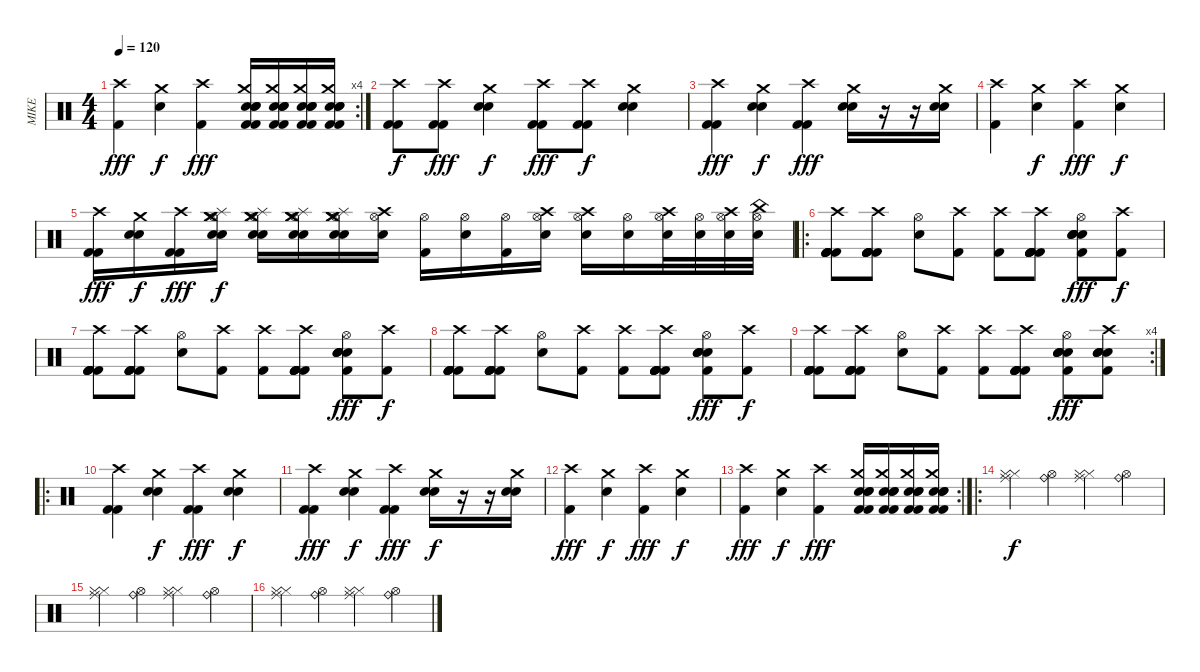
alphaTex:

\track ("MIKE" "MIKE") {instrument percussion}
\staff {score}
\articulation defaults
\rc 4
\ts (4 4)
\tempo 120
\clef neutral
\ks c
("Crash high (hit)" "Kick (hit) 2").4{dy fff} ("Crash medium (hit)" "Snare (hit) 2").4{dy f} ("Crash high (hit)" "Kick (hit) 2").4{dy fff} ("Crash medium (hit)" "Kick (hit) 2" "Kick (hit) 2" "Snare (hit) 2" "Snare (hit) 2" "Snare (hit) 2").16 ("Crash medium (hit)" "Kick (hit) 2" "Kick (hit) 2" "Snare (hit) 2" "Snare (hit) 2" "Snare (hit) 2").16 ("Crash medium (hit)" "Kick (hit) 2" "Kick (hit) 2" "Snare (hit) 2" "Snare (hit) 2" "Snare (hit) 2").16 ("Crash medium (hit)" "Kick (hit) 2" "Kick (hit) 2" "Snare (hit) 2" "Snare (hit) 2" "Snare (hit) 2").16 |
("Crash high (hit)" "Kick (hit) 2" "Kick (hit) 2").8{dy f} ("Crash high (hit)" "Kick (hit) 2" "Kick (hit) 2").8{dy fff} ("Crash medium (hit)" "Snare (hit) 2" "Snare (hit) 2").4{dy f} ("Crash high (hit)" "Kick (hit) 2" "Kick (hit) 2").8{dy fff} ("Crash high (hit)" "Kick (hit) 2" "Kick (hit) 2").8{dy f} ("Crash medium (hit)" "Snare (hit) 2" "Snare (hit) 2").4 |
("Crash high (hit)" "Kick (hit) 2" "Kick (hit) 2").4{dy fff} ("Crash medium (hit)" "Snare (hit) 2" "Snare (hit) 2").4{dy f} ("Crash high (hit)" "Kick (hit) 2" "Kick (hit) 2").4{dy fff} ("Crash medium (hit)" "Snare (hit) 2" "Snare (hit) 2").16 r.16 r.16 ("Crash medium (hit)" "Snare (hit) 2" "Snare (hit) 2").16 |
("Crash high (hit)" "Kick (hit) 2").4 ("Crash medium (hit)" "Snare (hit) 2").4{dy f} ("Crash high (hit)" "Kick (hit) 2").4{dy fff} ("Crash medium (hit)" "Snare (hit) 2").4{dy f} |
("Crash high (hit)" "Kick (hit) 2" "Kick (hit) 2").16{dy fff} ("Crash medium (hit)" "Snare (hit) 2" "Snare (hit) 2").16{dy f} ("Crash high (hit)" "Kick (hit) 2" "Kick (hit) 2").16{dy fff} ("Crash medium (hit)" "Crash medium (hit)" "Hi-Hat (open)" "Splash (hit)" "Snare (hit) 2" "Snare (hit) 2").16{dy f} ("Crash medium (hit)" "Crash medium (hit)" "Hi-Hat (open)" "Splash (hit)" "Snare (hit) 2" "Snare (hit) 2").16 ("Crash medium (hit)" "Crash medium (hit)" "Hi-Hat (open)" "Splash (hit)" "Snare (hit) 2" "Snare (hit) 2").16 ("Crash medium (hit)" "Crash medium (hit)" "Hi-Hat (open)" "Splash (hit)" "Snare (hit) 2" "Snare (hit) 2").16 ("Crash high (hit)" "Hi-Hat (open)" "Snare (hit) 2").16 ("Hi-Hat (open)" "Kick (hit) 2").16 ("Hi-Hat (open)" "Snare (hit) 2").16 ("Hi-Hat (open)" "Kick (hit) 2").16 ("Crash high (hit)" "Hi-Hat (open)" "Snare (hit) 2").16 ("Crash high (hit)" "Hi-Hat (open)" "Snare (hit) 2").16 ("Hi-Hat (open)" "Snare (hit) 2").16 ("Crash high (hit)" "Hi-Hat (open)" "Snare (hit) 2").32 ("Hi-Hat (open)" "Snare (hit) 2").32 ("Crash high (hit)" "Hi-Hat (open)" "Snare (hit) 2").32 ("China (hit)" "Hi-Hat (open)" "Snare (hit) 2").32 |
\ro
("Crash high (hit)" "Kick (hit) 2" "Kick (hit) 2" "Kick (hit) 2" "Kick (hit) 2" "Kick (hit) 2").8 ("Crash high (hit)" "Kick (hit) 2" "Kick (hit) 2" "Kick (hit) 2" "Kick (hit) 2" "Kick (hit) 2").8 ("Hi-Hat (open)" "Snare (hit) 2").8 ("Crash high (hit)" "Kick (hit) 2").8 ("Crash high (hit)" "Kick (hit) 2").8 ("Crash high (hit)" "Kick (hit) 2" "Kick (hit) 2" "Kick (hit) 2" "Kick (hit) 2" "Kick (hit) 2").8 ("Hi-Hat (open)" "Electric Snare (hit)" "Electric Snare (hit)" "Snare (hit) 2" "Snare (hit) 2" "Kick (hit) 2").8{dy fff} ("Crash high (hit)" "Kick (hit) 2").8{dy f} |
("Crash high (hit)" "Kick (hit) 2" "Kick (hit) 2" "Kick (hit) 2" "Kick (hit) 2" "Kick (hit) 2").8 ("Crash high (hit)" "Kick (hit) 2" "Kick (hit) 2" "Kick (hit) 2" "Kick (hit) 2" "Kick (hit) 2").8 ("Hi-Hat (open)" "Snare (hit) 2").8 ("Crash high (hit)" "Kick (hit) 2").8 ("Crash high (hit)" "Kick (hit) 2").8 ("Crash high (hit)" "Kick (hit) 2" "Kick (hit) 2" "Kick (hit) 2" "Kick (hit) 2" "Kick (hit) 2").8 ("Hi-Hat (open)" "Electric Snare (hit)" "Electric Snare (hit)" "Snare (hit) 2" "Snare (hit) 2" "Kick (hit) 2").8{dy fff} ("Crash high (hit)" "Kick (hit) 2").8{dy f} |
("Crash high (hit)" "Kick (hit) 2" "Kick (hit) 2" "Kick (hit) 2" "Kick (hit) 2" "Kick (hit) 2").8 ("Crash high (hit)" "Kick (hit) 2" "Kick (hit) 2" "Kick (hit) 2" "Kick (hit) 2" "Kick (hit) 2").8 ("Hi-Hat (open)" "Snare (hit) 2").8 ("Crash high (hit)" "Kick (hit) 2").8 ("Crash high (hit)" "Kick (hit) 2").8 ("Crash high (hit)" "Kick (hit) 2" "Kick (hit) 2" "Kick (hit) 2" "Kick (hit) 2" "Kick (hit) 2").8 ("Hi-Hat (open)" "Electric Snare (hit)" "Electric Snare (hit)" "Snare (hit) 2" "Snare (hit) 2" "Kick (hit) 2").8{dy fff} ("Crash high (hit)" "Kick (hit) 2").8{dy f} |
\rc 4
("Crash high (hit)" "Kick (hit) 2" "Kick (hit) 2" "Kick (hit) 2" "Kick (hit) 2" "Kick (hit) 2").8 ("Crash high (hit)" "Kick (hit) 2" "Kick (hit) 2" "Kick (hit) 2" "Kick (hit) 2" "Kick (hit) 2").8 ("Hi-Hat (open)" "Snare (hit) 2").8 ("Crash high (hit)" "Kick (hit) 2").8 ("Crash high (hit)" "Kick (hit) 2").8 ("Crash high (hit)" "Kick (hit) 2" "Kick (hit) 2" "Kick (hit) 2" "Kick (hit) 2" "Kick (hit) 2").8 ("Hi-Hat (open)" "Electric Snare (hit)" "Electric Snare (hit)" "Snare (hit) 2" "Snare (hit) 2" "Kick (hit) 2").8{dy fff} ("Crash high (hit)" "Electric Snare (hit)" "Electric Snare (hit)" "Snare (hit) 2" "Snare (hit) 2" "Kick (hit) 2").8 |
\ro
("Crash high (hit)" "Kick (hit) 2" "Kick (hit) 2").4 ("Crash medium (hit)" "Snare (hit) 2" "Snare (hit) 2").4{dy f} ("Crash high (hit)" "Kick (hit) 2" "Kick (hit) 2").4{dy fff} ("Crash medium (hit)" "Snare (hit) 2" "Snare (hit) 2").4{dy f} |
("Crash high (hit)" "Kick (hit) 2" "Kick (hit) 2").4{dy fff} ("Crash medium (hit)" "Snare (hit) 2" "Snare (hit) 2").4{dy f} ("Crash high (hit)" "Kick (hit) 2" "Kick (hit) 2").4{dy fff} ("Crash medium (hit)" "Snare (hit) 2" "Snare (hit) 2").16{dy f} r.16 r.16 ("Crash medium (hit)" "Snare (hit) 2" "Snare (hit) 2").16 |
("Crash high (hit)" "Kick (hit) 2").4{dy fff} ("Crash medium (hit)" "Snare (hit) 2").4{dy f} ("Crash high (hit)" "Kick (hit) 2").4{dy fff} ("Crash medium (hit)" "Snare (hit) 2").4{dy f} |
\rc 2
("Crash high (hit)" "Kick (hit) 2").4{dy fff} ("Crash medium (hit)" "Snare (hit) 2").4{dy f} ("Crash high (hit)" "Kick (hit) 2").4{dy fff} ("Crash medium (hit)" "Kick (hit) 2" "Kick (hit) 2" "Snare (hit) 2" "Snare (hit) 2" "Snare (hit) 2").16 ("Crash medium (hit)" "Kick (hit) 2" "Kick (hit) 2" "Snare (hit) 2" "Snare (hit) 2" "Snare (hit) 2").16 ("Crash medium (hit)" "Kick (hit) 2" "Kick (hit) 2" "Snare (hit) 2" "Snare (hit) 2" "Snare (hit) 2").16 ("Crash medium (hit)" "Kick (hit) 2" "Kick (hit) 2" "Snare (hit) 2" "Snare (hit) 2" "Snare (hit) 2").16 |
\ro
("Hi-Hat (closed)" "Hi-Hat (closed)" "Ride (middle)").4{dy f} ("Hi-Hat (open)" "Ride (bell)").4 ("Hi-Hat (closed)" "Hi-Hat (closed)" "Ride (middle)").4 ("Hi-Hat (open)" "Ride (bell)").4 |
("Hi-Hat (closed)" "Hi-Hat (closed)" "Ride (middle)").4 ("Hi-Hat (open)" "Ride (bell)").4 ("Hi-Hat (closed)" "Hi-Hat (closed)" "Ride (middle)").4 ("Hi-Hat (open)" "Ride (bell)").4 |
("Hi-Hat (closed)" "Hi-Hat (closed)" "Ride (middle)").4 ("Hi-Hat (open)" "Ride (bell)").4 ("Hi-Hat (closed)" "Hi-Hat (closed)" "Ride (middle)").4 ("Hi-Hat (open)" "Ride (bell)").4
